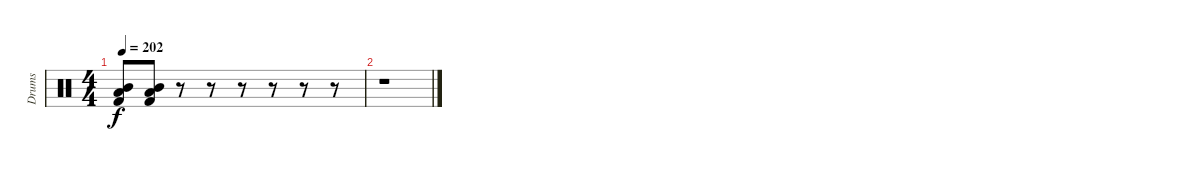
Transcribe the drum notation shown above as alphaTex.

\track ("Drums" "Drums") {instrument percussion}
\staff {score}
\articulation defaults
\ts (4 4)
\tempo 202
\clef neutral
\ks c
("Mid Tom (hit)" "Low Tom (hit)" "Kick (hit) 2").8{dy f} ("Mid Tom (hit)" "Low Tom (hit)" "Kick (hit) 2").8 r.8 r.8 r.8 r.8 r.8 r.8 |
r.1
